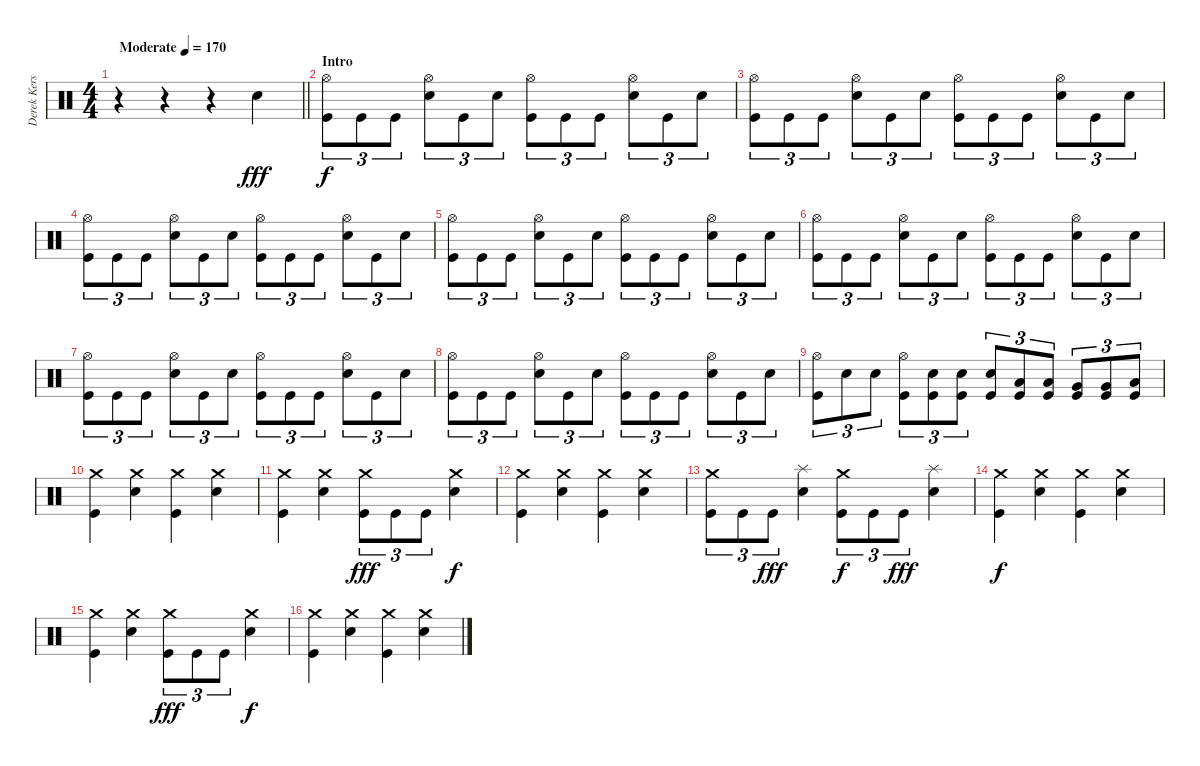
\track ("Derek Kerswill" "Derek Kers") {instrument percussion}
\staff {score}
\articulation defaults
\ts (4 4)
\tempo (170 "Moderate")
\clef neutral
\barLineRight lightlight
\ks c
r.4{dy fff} r.4 r.4 "Snare (hit) 2".4 |
\section ("" "Intro")
("Hi-Hat (open)" "Kick (hit)").8{tu (3 2) dy f} "Kick (hit)".8{tu (3 2)} "Kick (hit)".8{tu (3 2)} ("Hi-Hat (open)" "Snare (hit) 2").8{tu (3 2)} "Kick (hit)".8{tu (3 2)} "Snare (hit) 2".8{tu (3 2)} ("Hi-Hat (open)" "Kick (hit)").8{tu (3 2)} "Kick (hit)".8{tu (3 2)} "Kick (hit)".8{tu (3 2)} ("Hi-Hat (open)" "Snare (hit) 2").8{tu (3 2)} "Kick (hit)".8{tu (3 2)} "Snare (hit) 2".8{tu (3 2)} |
("Hi-Hat (open)" "Kick (hit)").8{tu (3 2)} "Kick (hit)".8{tu (3 2)} "Kick (hit)".8{tu (3 2)} ("Hi-Hat (open)" "Snare (hit) 2").8{tu (3 2)} "Kick (hit)".8{tu (3 2)} "Snare (hit) 2".8{tu (3 2)} ("Hi-Hat (open)" "Kick (hit)").8{tu (3 2)} "Kick (hit)".8{tu (3 2)} "Kick (hit)".8{tu (3 2)} ("Hi-Hat (open)" "Snare (hit) 2").8{tu (3 2)} "Kick (hit)".8{tu (3 2)} "Snare (hit) 2".8{tu (3 2)} |
("Hi-Hat (open)" "Kick (hit)").8{tu (3 2)} "Kick (hit)".8{tu (3 2)} "Kick (hit)".8{tu (3 2)} ("Hi-Hat (open)" "Snare (hit) 2").8{tu (3 2)} "Kick (hit)".8{tu (3 2)} "Snare (hit) 2".8{tu (3 2)} ("Hi-Hat (open)" "Kick (hit)").8{tu (3 2)} "Kick (hit)".8{tu (3 2)} "Kick (hit)".8{tu (3 2)} ("Hi-Hat (open)" "Snare (hit) 2").8{tu (3 2)} "Kick (hit)".8{tu (3 2)} "Snare (hit) 2".8{tu (3 2)} |
("Hi-Hat (open)" "Kick (hit)").8{tu (3 2)} "Kick (hit)".8{tu (3 2)} "Kick (hit)".8{tu (3 2)} ("Hi-Hat (open)" "Snare (hit) 2").8{tu (3 2)} "Kick (hit)".8{tu (3 2)} "Snare (hit) 2".8{tu (3 2)} ("Hi-Hat (open)" "Kick (hit)").8{tu (3 2)} "Kick (hit)".8{tu (3 2)} "Kick (hit)".8{tu (3 2)} ("Hi-Hat (open)" "Snare (hit) 2").8{tu (3 2)} "Kick (hit)".8{tu (3 2)} "Snare (hit) 2".8{tu (3 2)} |
("Hi-Hat (open)" "Kick (hit)").8{tu (3 2)} "Kick (hit)".8{tu (3 2)} "Kick (hit)".8{tu (3 2)} ("Hi-Hat (open)" "Snare (hit) 2").8{tu (3 2)} "Kick (hit)".8{tu (3 2)} "Snare (hit) 2".8{tu (3 2)} ("Hi-Hat (open)" "Kick (hit)").8{tu (3 2)} "Kick (hit)".8{tu (3 2)} "Kick (hit)".8{tu (3 2)} ("Hi-Hat (open)" "Snare (hit) 2").8{tu (3 2)} "Kick (hit)".8{tu (3 2)} "Snare (hit) 2".8{tu (3 2)} |
("Hi-Hat (open)" "Kick (hit)").8{tu (3 2)} "Kick (hit)".8{tu (3 2)} "Kick (hit)".8{tu (3 2)} ("Hi-Hat (open)" "Snare (hit) 2").8{tu (3 2)} "Kick (hit)".8{tu (3 2)} "Snare (hit) 2".8{tu (3 2)} ("Hi-Hat (open)" "Kick (hit)").8{tu (3 2)} "Kick (hit)".8{tu (3 2)} "Kick (hit)".8{tu (3 2)} ("Hi-Hat (open)" "Snare (hit) 2").8{tu (3 2)} "Kick (hit)".8{tu (3 2)} "Snare (hit) 2".8{tu (3 2)} |
("Hi-Hat (open)" "Kick (hit)").8{tu (3 2)} "Kick (hit)".8{tu (3 2)} "Kick (hit)".8{tu (3 2)} ("Hi-Hat (open)" "Snare (hit) 2").8{tu (3 2)} "Kick (hit)".8{tu (3 2)} "Snare (hit) 2".8{tu (3 2)} ("Hi-Hat (open)" "Kick (hit)").8{tu (3 2)} "Kick (hit)".8{tu (3 2)} "Kick (hit)".8{tu (3 2)} ("Hi-Hat (open)" "Snare (hit) 2").8{tu (3 2)} "Kick (hit)".8{tu (3 2)} "Snare (hit) 2".8{tu (3 2)} |
("Hi-Hat (open)" "Kick (hit)").8{tu (3 2)} "Snare (hit) 2".8{tu (3 2)} "Snare (hit) 2".8{tu (3 2)} ("Hi-Hat (open)" "Kick (hit)").8{tu (3 2)} ("Snare (hit) 2" "Kick (hit)").8{tu (3 2)} ("Snare (hit) 2" "Kick (hit)").8{tu (3 2)} ("Snare (hit) 2" "Kick (hit)").8{tu (3 2)} ("Low Tom (hit)" "Kick (hit)").8{tu (3 2)} ("Low Tom (hit)" "Kick (hit)").8{tu (3 2)} ("Very Low Tom (hit)" "Kick (hit)").8{tu (3 2)} ("Very Low Tom (hit)" "Kick (hit)").8{tu (3 2)} ("Low Floor Tom (hit)" "Kick (hit)").8{tu (3 2)} |
("Crash medium (hit)" "Kick (hit)").4 ("Crash medium (hit)" "Snare (hit) 2").4 ("Crash medium (hit)" "Kick (hit)").4 ("Crash medium (hit)" "Snare (hit) 2").4 |
("Crash medium (hit)" "Kick (hit)").4 ("Crash medium (hit)" "Snare (hit) 2").4 ("Crash medium (hit)" "Kick (hit)").8{tu (3 2) dy fff} "Kick (hit)".8{tu (3 2)} "Kick (hit)".8{tu (3 2)} ("Crash medium (hit)" "Snare (hit) 2").4{dy f} |
("Crash medium (hit)" "Kick (hit)").4 ("Crash medium (hit)" "Snare (hit) 2").4 ("Crash medium (hit)" "Kick (hit)").4 ("Crash medium (hit)" "Snare (hit) 2").4 |
("Crash medium (hit)" "Kick (hit)").8{tu (3 2)} "Kick (hit)".8{tu (3 2)} "Kick (hit)".8{tu (3 2) dy fff} ("Splash (hit)" "Snare (hit) 2").4 ("Crash medium (hit)" "Kick (hit)").8{tu (3 2) dy f} "Kick (hit)".8{tu (3 2)} "Kick (hit)".8{tu (3 2) dy fff} ("Splash (hit)" "Snare (hit) 2").4 |
("Crash medium (hit)" "Kick (hit)").4{dy f} ("Crash medium (hit)" "Snare (hit) 2").4 ("Crash medium (hit)" "Kick (hit)").4 ("Crash medium (hit)" "Snare (hit) 2").4 |
("Crash medium (hit)" "Kick (hit)").4 ("Crash medium (hit)" "Snare (hit) 2").4 ("Crash medium (hit)" "Kick (hit)").8{tu (3 2) dy fff} "Kick (hit)".8{tu (3 2)} "Kick (hit)".8{tu (3 2)} ("Crash medium (hit)" "Snare (hit) 2").4{dy f} |
("Crash medium (hit)" "Kick (hit)").4 ("Crash medium (hit)" "Snare (hit) 2").4 ("Crash medium (hit)" "Kick (hit)").4 ("Crash medium (hit)" "Snare (hit) 2").4
